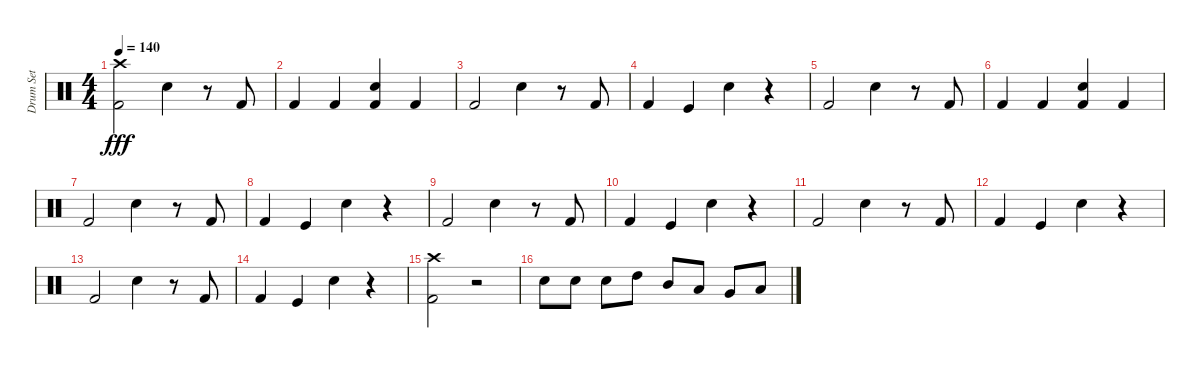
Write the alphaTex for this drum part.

\track ("Drum Set" "Drum Set") {instrument percussion}
\staff {score}
\articulation defaults
\ts (4 4)
\tempo 140
\clef neutral
\ks c
("Kick (hit) 2" "Crash high (hit)").2{dy fff} "Electric Snare (hit)".4 r.8 "Kick (hit) 2".8 |
"Kick (hit) 2".4 "Kick (hit) 2".4 ("Electric Snare (hit)" "Kick (hit) 2").4 "Kick (hit) 2".4 |
"Kick (hit) 2".2 "Electric Snare (hit)".4 r.8 "Kick (hit) 2".8 |
"Kick (hit) 2".4 "Kick (hit)".4 "Electric Snare (hit)".4 r.4 |
"Kick (hit) 2".2 "Electric Snare (hit)".4 r.8 "Kick (hit) 2".8 |
"Kick (hit) 2".4 "Kick (hit) 2".4 ("Electric Snare (hit)" "Kick (hit) 2").4 "Kick (hit) 2".4 |
"Kick (hit) 2".2 "Electric Snare (hit)".4 r.8 "Kick (hit) 2".8 |
"Kick (hit) 2".4 "Kick (hit)".4 "Electric Snare (hit)".4 r.4 |
"Kick (hit) 2".2 "Electric Snare (hit)".4 r.8 "Kick (hit) 2".8 |
"Kick (hit) 2".4 "Kick (hit)".4 "Electric Snare (hit)".4 r.4 |
"Kick (hit) 2".2 "Electric Snare (hit)".4 r.8 "Kick (hit) 2".8 |
"Kick (hit) 2".4 "Kick (hit)".4 "Electric Snare (hit)".4 r.4 |
"Kick (hit) 2".2 "Electric Snare (hit)".4 r.8 "Kick (hit) 2".8 |
"Kick (hit) 2".4 "Kick (hit)".4 "Electric Snare (hit)".4 r.4 |
("Kick (hit) 2" "Crash high (hit)").2 r.2 |
"Electric Snare (hit)".8 "Electric Snare (hit)".8 "Electric Snare (hit)".8 "High Tom (hit)".8 "Mid Tom (hit)".8 "Low Tom (hit)".8 "Very Low Tom (hit)".8 "Low Floor Tom (hit)".8
